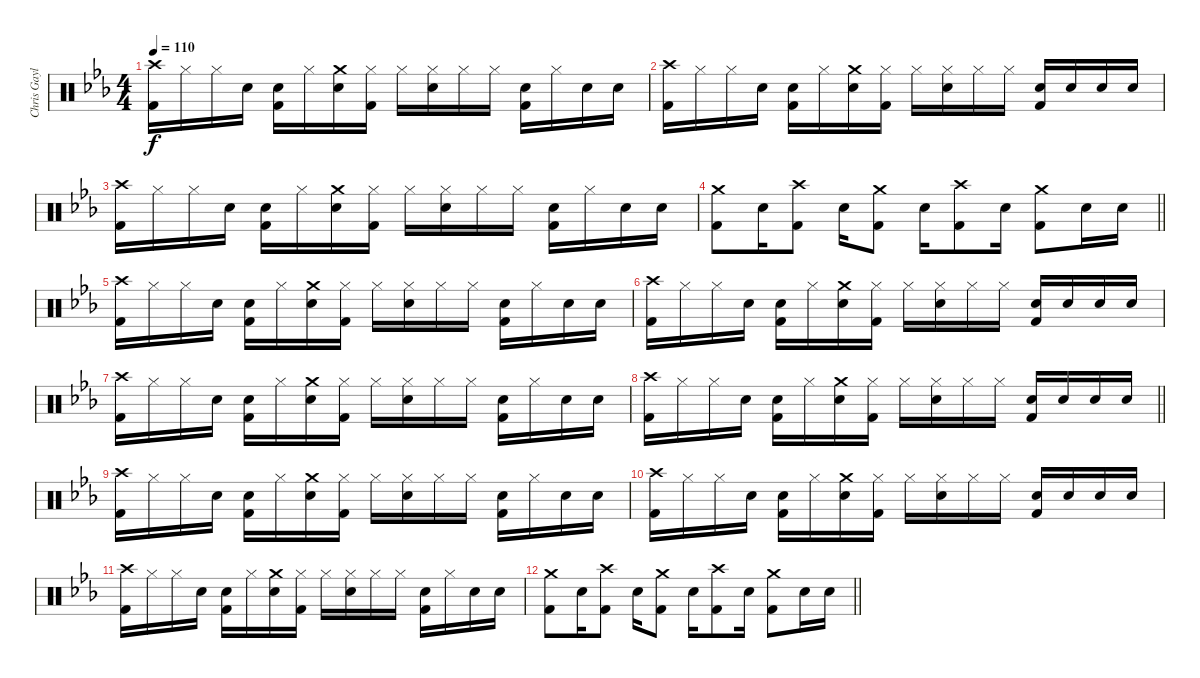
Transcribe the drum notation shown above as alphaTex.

\track ("Chris Gaylor (Percussion)" "Chris Gayl") {instrument percussion}
\staff {score}
\articulation defaults
\ts (4 4)
\tempo 110
\clef neutral
\ks eb
("Crash high (hit)" "Kick (hit) 2").16{dy f} "Hi-Hat (closed)".16 "Hi-Hat (closed)".16 "Electric Snare (hit)".16 ("Electric Snare (hit)" "Kick (hit) 2").16 "Hi-Hat (closed)".16 ("Crash medium (hit)" "Electric Snare (hit)").16 ("Hi-Hat (closed)" "Kick (hit) 2").16 "Hi-Hat (closed)".16 ("Hi-Hat (closed)" "Electric Snare (hit)").16 "Hi-Hat (closed)".16 "Hi-Hat (closed)".16 ("Electric Snare (hit)" "Kick (hit) 2").16 "Hi-Hat (closed)".16 "Electric Snare (hit)".16 "Electric Snare (hit)".16 |
("Crash high (hit)" "Kick (hit) 2").16 "Hi-Hat (closed)".16 "Hi-Hat (closed)".16 "Electric Snare (hit)".16 ("Electric Snare (hit)" "Kick (hit) 2").16 "Hi-Hat (closed)".16 ("Crash medium (hit)" "Electric Snare (hit)").16 ("Hi-Hat (closed)" "Kick (hit) 2").16 "Hi-Hat (closed)".16 ("Hi-Hat (closed)" "Electric Snare (hit)").16 "Hi-Hat (closed)".16 "Hi-Hat (closed)".16 ("Electric Snare (hit)" "Kick (hit) 2").16 "Electric Snare (hit)".16 "Electric Snare (hit)".16 "Electric Snare (hit)".16 |
("Crash high (hit)" "Kick (hit) 2").16 "Hi-Hat (closed)".16 "Hi-Hat (closed)".16 "Electric Snare (hit)".16 ("Electric Snare (hit)" "Kick (hit) 2").16 "Hi-Hat (closed)".16 ("Crash medium (hit)" "Electric Snare (hit)").16 ("Hi-Hat (closed)" "Kick (hit) 2").16 "Hi-Hat (closed)".16 ("Hi-Hat (closed)" "Electric Snare (hit)").16 "Hi-Hat (closed)".16 "Hi-Hat (closed)".16 ("Electric Snare (hit)" "Kick (hit) 2").16 "Hi-Hat (closed)".16 "Electric Snare (hit)".16 "Electric Snare (hit)".16 |
\barLineRight lightlight
("Crash medium (hit)" "Kick (hit) 2").8 "Electric Snare (hit)".16 ("Crash high (hit)" "Kick (hit) 2").8 "Electric Snare (hit)".16 ("Crash medium (hit)" "Kick (hit) 2").8 "Electric Snare (hit)".16 ("Crash high (hit)" "Kick (hit) 2").8 "Electric Snare (hit)".16 ("Crash medium (hit)" "Kick (hit) 2").8 "Electric Snare (hit)".16 "Electric Snare (hit)".16 |
("Crash high (hit)" "Kick (hit) 2").16 "Hi-Hat (closed)".16 "Hi-Hat (closed)".16 "Electric Snare (hit)".16 ("Electric Snare (hit)" "Kick (hit) 2").16 "Hi-Hat (closed)".16 ("Crash medium (hit)" "Electric Snare (hit)").16 ("Hi-Hat (closed)" "Kick (hit) 2").16 "Hi-Hat (closed)".16 ("Hi-Hat (closed)" "Electric Snare (hit)").16 "Hi-Hat (closed)".16 "Hi-Hat (closed)".16 ("Electric Snare (hit)" "Kick (hit) 2").16 "Hi-Hat (closed)".16 "Electric Snare (hit)".16 "Electric Snare (hit)".16 |
("Crash high (hit)" "Kick (hit) 2").16 "Hi-Hat (closed)".16 "Hi-Hat (closed)".16 "Electric Snare (hit)".16 ("Electric Snare (hit)" "Kick (hit) 2").16 "Hi-Hat (closed)".16 ("Crash medium (hit)" "Electric Snare (hit)").16 ("Hi-Hat (closed)" "Kick (hit) 2").16 "Hi-Hat (closed)".16 ("Hi-Hat (closed)" "Electric Snare (hit)").16 "Hi-Hat (closed)".16 "Hi-Hat (closed)".16 ("Electric Snare (hit)" "Kick (hit) 2").16 "Electric Snare (hit)".16 "Electric Snare (hit)".16 "Electric Snare (hit)".16 |
("Crash high (hit)" "Kick (hit) 2").16 "Hi-Hat (closed)".16 "Hi-Hat (closed)".16 "Electric Snare (hit)".16 ("Electric Snare (hit)" "Kick (hit) 2").16 "Hi-Hat (closed)".16 ("Crash medium (hit)" "Electric Snare (hit)").16 ("Hi-Hat (closed)" "Kick (hit) 2").16 "Hi-Hat (closed)".16 ("Hi-Hat (closed)" "Electric Snare (hit)").16 "Hi-Hat (closed)".16 "Hi-Hat (closed)".16 ("Electric Snare (hit)" "Kick (hit) 2").16 "Hi-Hat (closed)".16 "Electric Snare (hit)".16 "Electric Snare (hit)".16 |
\barLineRight lightlight
("Crash high (hit)" "Kick (hit) 2").16 "Hi-Hat (closed)".16 "Hi-Hat (closed)".16 "Electric Snare (hit)".16 ("Electric Snare (hit)" "Kick (hit) 2").16 "Hi-Hat (closed)".16 ("Crash medium (hit)" "Electric Snare (hit)").16 ("Hi-Hat (closed)" "Kick (hit) 2").16 "Hi-Hat (closed)".16 ("Hi-Hat (closed)" "Electric Snare (hit)").16 "Hi-Hat (closed)".16 "Hi-Hat (closed)".16 ("Electric Snare (hit)" "Kick (hit) 2").16 "Electric Snare (hit)".16 "Electric Snare (hit)".16 "Electric Snare (hit)".16 |
("Crash high (hit)" "Kick (hit) 2").16 "Hi-Hat (closed)".16 "Hi-Hat (closed)".16 "Electric Snare (hit)".16 ("Electric Snare (hit)" "Kick (hit) 2").16 "Hi-Hat (closed)".16 ("Crash medium (hit)" "Electric Snare (hit)").16 ("Hi-Hat (closed)" "Kick (hit) 2").16 "Hi-Hat (closed)".16 ("Hi-Hat (closed)" "Electric Snare (hit)").16 "Hi-Hat (closed)".16 "Hi-Hat (closed)".16 ("Electric Snare (hit)" "Kick (hit) 2").16 "Hi-Hat (closed)".16 "Electric Snare (hit)".16 "Electric Snare (hit)".16 |
("Crash high (hit)" "Kick (hit) 2").16 "Hi-Hat (closed)".16 "Hi-Hat (closed)".16 "Electric Snare (hit)".16 ("Electric Snare (hit)" "Kick (hit) 2").16 "Hi-Hat (closed)".16 ("Crash medium (hit)" "Electric Snare (hit)").16 ("Hi-Hat (closed)" "Kick (hit) 2").16 "Hi-Hat (closed)".16 ("Hi-Hat (closed)" "Electric Snare (hit)").16 "Hi-Hat (closed)".16 "Hi-Hat (closed)".16 ("Electric Snare (hit)" "Kick (hit) 2").16 "Electric Snare (hit)".16 "Electric Snare (hit)".16 "Electric Snare (hit)".16 |
("Crash high (hit)" "Kick (hit) 2").16 "Hi-Hat (closed)".16 "Hi-Hat (closed)".16 "Electric Snare (hit)".16 ("Electric Snare (hit)" "Kick (hit) 2").16 "Hi-Hat (closed)".16 ("Crash medium (hit)" "Electric Snare (hit)").16 ("Hi-Hat (closed)" "Kick (hit) 2").16 "Hi-Hat (closed)".16 ("Hi-Hat (closed)" "Electric Snare (hit)").16 "Hi-Hat (closed)".16 "Hi-Hat (closed)".16 ("Electric Snare (hit)" "Kick (hit) 2").16 "Hi-Hat (closed)".16 "Electric Snare (hit)".16 "Electric Snare (hit)".16 |
\barLineRight lightlight
("Crash medium (hit)" "Kick (hit) 2").8 "Electric Snare (hit)".16 ("Crash high (hit)" "Kick (hit) 2").8 "Electric Snare (hit)".16 ("Crash medium (hit)" "Kick (hit) 2").8 "Electric Snare (hit)".16 ("Crash high (hit)" "Kick (hit) 2").8 "Electric Snare (hit)".16 ("Crash medium (hit)" "Kick (hit) 2").8 "Electric Snare (hit)".16 "Electric Snare (hit)".16
